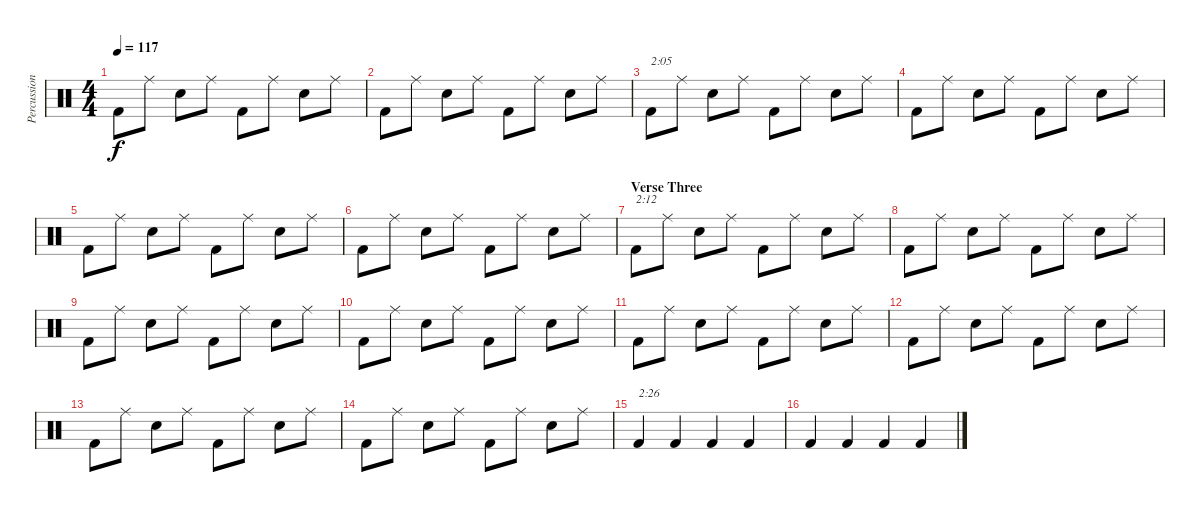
\track ("Percussion" "Percussion") {instrument percussion}
\staff {score}
\articulation defaults
\ts (4 4)
\tempo 117
\clef neutral
\ks c "Kick (hit) 2".8{dy f} "Ride (middle)".8 "Snare (hit) 2".8 "Ride (middle)".8 "Kick (hit) 2".8 "Ride (middle)".8 "Snare (hit) 2".8 "Ride (middle)".8
|
"Kick (hit) 2".8 "Ride (middle)".8 "Snare (hit) 2".8 "Ride (middle)".8 "Kick (hit) 2".8 "Ride (middle)".8 "Snare (hit) 2".8 "Ride (middle)".8 |
"Kick (hit) 2".8{txt "2:05"} "Ride (middle)".8 "Snare (hit) 2".8 "Ride (middle)".8 "Kick (hit) 2".8 "Ride (middle)".8 "Snare (hit) 2".8 "Ride (middle)".8 |
"Kick (hit) 2".8 "Ride (middle)".8 "Snare (hit) 2".8 "Ride (middle)".8 "Kick (hit) 2".8 "Ride (middle)".8 "Snare (hit) 2".8 "Ride (middle)".8 |
"Kick (hit) 2".8 "Ride (middle)".8 "Snare (hit) 2".8 "Ride (middle)".8 "Kick (hit) 2".8 "Ride (middle)".8 "Snare (hit) 2".8 "Ride (middle)".8 |
"Kick (hit) 2".8 "Ride (middle)".8 "Snare (hit) 2".8 "Ride (middle)".8 "Kick (hit) 2".8 "Ride (middle)".8 "Snare (hit) 2".8 "Ride (middle)".8 |
\section ("" "Verse Three")
"Kick (hit) 2".8{txt "2:12"} "Ride (middle)".8 "Snare (hit) 2".8 "Ride (middle)".8 "Kick (hit) 2".8 "Ride (middle)".8 "Snare (hit) 2".8 "Ride (middle)".8 |
"Kick (hit) 2".8 "Ride (middle)".8 "Snare (hit) 2".8 "Ride (middle)".8 "Kick (hit) 2".8 "Ride (middle)".8 "Snare (hit) 2".8 "Ride (middle)".8 |
"Kick (hit) 2".8 "Ride (middle)".8 "Snare (hit) 2".8 "Ride (middle)".8 "Kick (hit) 2".8 "Ride (middle)".8 "Snare (hit) 2".8 "Ride (middle)".8 |
"Kick (hit) 2".8 "Ride (middle)".8 "Snare (hit) 2".8 "Ride (middle)".8 "Kick (hit) 2".8 "Ride (middle)".8 "Snare (hit) 2".8 "Ride (middle)".8 |
"Kick (hit) 2".8 "Ride (middle)".8 "Snare (hit) 2".8 "Ride (middle)".8 "Kick (hit) 2".8 "Ride (middle)".8 "Snare (hit) 2".8 "Ride (middle)".8 |
"Kick (hit) 2".8 "Ride (middle)".8 "Snare (hit) 2".8 "Ride (middle)".8 "Kick (hit) 2".8 "Ride (middle)".8 "Snare (hit) 2".8 "Ride (middle)".8 |
"Kick (hit) 2".8 "Ride (middle)".8 "Snare (hit) 2".8 "Ride (middle)".8 "Kick (hit) 2".8 "Ride (middle)".8 "Snare (hit) 2".8 "Ride (middle)".8 |
"Kick (hit) 2".8 "Ride (middle)".8 "Snare (hit) 2".8 "Ride (middle)".8 "Kick (hit) 2".8 "Ride (middle)".8 "Snare (hit) 2".8 "Ride (middle)".8 |
"Kick (hit) 2".4{txt "2:26"} "Kick (hit) 2".4 "Kick (hit) 2".4 "Kick (hit) 2".4 |
"Kick (hit) 2".4 "Kick (hit) 2".4 "Kick (hit) 2".4 "Kick (hit) 2".4
